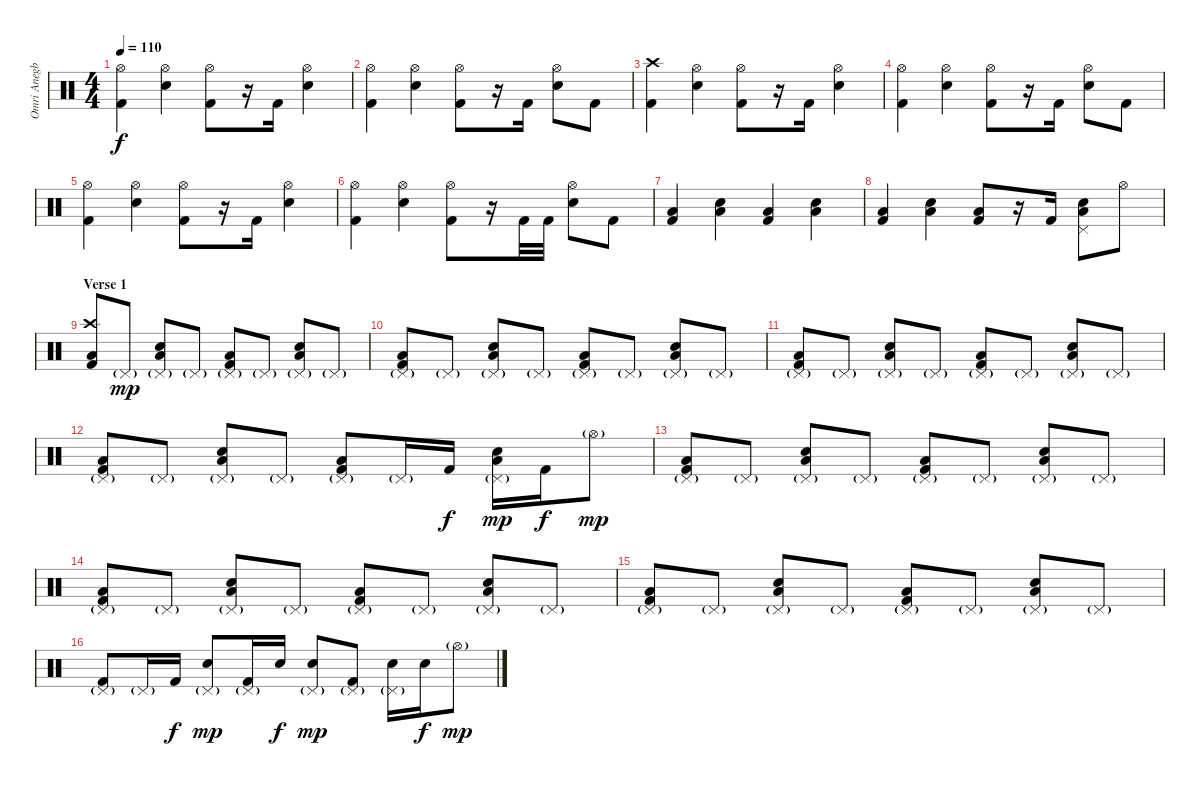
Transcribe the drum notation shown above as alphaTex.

\track ("Omri Anegbi" "Omri Anegb") {instrument percussion}
\staff {score}
\articulation defaults
\ts (4 4)
\tempo 110
\clef neutral
\ks c
("Hi-Hat (open)" "Kick (hit) 2").4{dy f} ("Hi-Hat (open)" "Snare (hit) 2").4 ("Hi-Hat (open)" "Kick (hit) 2").8 r.16 "Kick (hit) 2".16 ("Hi-Hat (open)" "Snare (hit) 2").4 |
("Hi-Hat (open)" "Kick (hit) 2").4 ("Hi-Hat (open)" "Snare (hit) 2").4 ("Hi-Hat (open)" "Kick (hit) 2").8 r.16 "Kick (hit) 2".16 ("Hi-Hat (open)" "Snare (hit) 2").8 "Kick (hit) 2".8 |
("Crash high (hit)" "Kick (hit) 2").4 ("Hi-Hat (open)" "Snare (hit) 2").4 ("Hi-Hat (open)" "Kick (hit) 2").8 r.16 "Kick (hit) 2".16 ("Hi-Hat (open)" "Snare (hit) 2").4 |
("Hi-Hat (open)" "Kick (hit) 2").4 ("Hi-Hat (open)" "Snare (hit) 2").4 ("Hi-Hat (open)" "Kick (hit) 2").8 r.16 "Kick (hit) 2".16 ("Hi-Hat (open)" "Snare (hit) 2").8 "Kick (hit) 2".8 |
("Hi-Hat (open)" "Kick (hit) 2").4 ("Hi-Hat (open)" "Snare (hit) 2").4 ("Hi-Hat (open)" "Kick (hit) 2").8 r.16 "Kick (hit) 2".16 ("Hi-Hat (open)" "Snare (hit) 2").4 |
("Hi-Hat (open)" "Kick (hit) 2").4 ("Hi-Hat (open)" "Snare (hit) 2").4 ("Hi-Hat (open)" "Kick (hit) 2").8 r.16 "Kick (hit) 2".32 "Kick (hit) 2".32 ("Hi-Hat (open)" "Snare (hit) 2").8 "Kick (hit) 2".8 |
("Low Floor Tom (hit)" "Kick (hit) 2").4 ("Snare (hit) 2" "Low Floor Tom (hit)").4 ("Low Floor Tom (hit)" "Kick (hit) 2").4 ("Snare (hit) 2" "Low Floor Tom (hit)").4 |
("Low Floor Tom (hit)" "Kick (hit) 2").4 ("Snare (hit) 2" "Low Floor Tom (hit)").4 ("Low Floor Tom (hit)" "Kick (hit) 2").8 r.16 "Kick (hit) 2".16 ("Pedal Hi-Hat (hit)" "Snare (hit) 2" "Low Floor Tom (hit)").8 "Hi-Hat (open)".8 |
\section ("" "Verse 1")
("Crash high (hit)" "Low Floor Tom (hit)" "Kick (hit) 2").8 "Pedal Hi-Hat (hit)"{g}.8{dy mp} ("Pedal Hi-Hat (hit)"{g} "Snare (hit) 2" "Low Floor Tom (hit)").8 "Pedal Hi-Hat (hit)"{g}.8 ("Pedal Hi-Hat (hit)"{g} "Low Floor Tom (hit)" "Kick (hit) 2").8 "Pedal Hi-Hat (hit)"{g}.8 ("Pedal Hi-Hat (hit)"{g} "Snare (hit) 2" "Low Floor Tom (hit)").8 "Pedal Hi-Hat (hit)"{g}.8 |
("Pedal Hi-Hat (hit)"{g} "Low Floor Tom (hit)" "Kick (hit) 2").8 "Pedal Hi-Hat (hit)"{g}.8 ("Pedal Hi-Hat (hit)"{g} "Snare (hit) 2" "Low Floor Tom (hit)").8 "Pedal Hi-Hat (hit)"{g}.8 ("Pedal Hi-Hat (hit)"{g} "Low Floor Tom (hit)" "Kick (hit) 2").8 "Pedal Hi-Hat (hit)"{g}.8 ("Pedal Hi-Hat (hit)"{g} "Snare (hit) 2" "Low Floor Tom (hit)").8 "Pedal Hi-Hat (hit)"{g}.8 |
("Pedal Hi-Hat (hit)"{g} "Low Floor Tom (hit)" "Kick (hit) 2").8 "Pedal Hi-Hat (hit)"{g}.8 ("Pedal Hi-Hat (hit)"{g} "Snare (hit) 2" "Low Floor Tom (hit)").8 "Pedal Hi-Hat (hit)"{g}.8 ("Pedal Hi-Hat (hit)"{g} "Low Floor Tom (hit)" "Kick (hit) 2").8 "Pedal Hi-Hat (hit)"{g}.8 ("Pedal Hi-Hat (hit)"{g} "Snare (hit) 2" "Low Floor Tom (hit)").8 "Pedal Hi-Hat (hit)"{g}.8 |
("Pedal Hi-Hat (hit)"{g} "Low Floor Tom (hit)" "Kick (hit) 2").8 "Pedal Hi-Hat (hit)"{g}.8 ("Pedal Hi-Hat (hit)"{g} "Snare (hit) 2" "Low Floor Tom (hit)").8 "Pedal Hi-Hat (hit)"{g}.8 ("Pedal Hi-Hat (hit)"{g} "Low Floor Tom (hit)" "Kick (hit) 2").8 "Pedal Hi-Hat (hit)"{g}.16 "Kick (hit) 2".16{dy f} ("Pedal Hi-Hat (hit)"{g} "Snare (hit) 2" "Low Floor Tom (hit)").16{dy mp} "Kick (hit) 2".16{dy f} "Hi-Hat (open)"{g}.8{dy mp} |
("Pedal Hi-Hat (hit)"{g} "Low Floor Tom (hit)" "Kick (hit) 2").8 "Pedal Hi-Hat (hit)"{g}.8 ("Pedal Hi-Hat (hit)"{g} "Snare (hit) 2" "Low Floor Tom (hit)").8 "Pedal Hi-Hat (hit)"{g}.8 ("Pedal Hi-Hat (hit)"{g} "Low Floor Tom (hit)" "Kick (hit) 2").8 "Pedal Hi-Hat (hit)"{g}.8 ("Pedal Hi-Hat (hit)"{g} "Snare (hit) 2" "Low Floor Tom (hit)").8 "Pedal Hi-Hat (hit)"{g}.8 |
("Pedal Hi-Hat (hit)"{g} "Low Floor Tom (hit)" "Kick (hit) 2").8 "Pedal Hi-Hat (hit)"{g}.8 ("Pedal Hi-Hat (hit)"{g} "Snare (hit) 2" "Low Floor Tom (hit)").8 "Pedal Hi-Hat (hit)"{g}.8 ("Pedal Hi-Hat (hit)"{g} "Low Floor Tom (hit)" "Kick (hit) 2").8 "Pedal Hi-Hat (hit)"{g}.8 ("Pedal Hi-Hat (hit)"{g} "Snare (hit) 2" "Low Floor Tom (hit)").8 "Pedal Hi-Hat (hit)"{g}.8 |
("Pedal Hi-Hat (hit)"{g} "Low Floor Tom (hit)" "Kick (hit) 2").8 "Pedal Hi-Hat (hit)"{g}.8 ("Pedal Hi-Hat (hit)"{g} "Snare (hit) 2" "Low Floor Tom (hit)").8 "Pedal Hi-Hat (hit)"{g}.8 ("Pedal Hi-Hat (hit)"{g} "Low Floor Tom (hit)" "Kick (hit) 2").8 "Pedal Hi-Hat (hit)"{g}.8 ("Pedal Hi-Hat (hit)"{g} "Snare (hit) 2" "Low Floor Tom (hit)").8 "Pedal Hi-Hat (hit)"{g}.8 |
("Pedal Hi-Hat (hit)"{g} "Kick (hit) 2").8 "Pedal Hi-Hat (hit)"{g}.16 "Kick (hit) 2".16{dy f} ("Pedal Hi-Hat (hit)"{g} "Snare (hit) 2").8{dy mp} ("Pedal Hi-Hat (hit)"{g} "Kick (hit) 2").16 "Snare (hit) 2".16{dy f} ("Pedal Hi-Hat (hit)"{g} "Snare (hit) 2").8{dy mp} ("Pedal Hi-Hat (hit)"{g} "Kick (hit) 2").8 ("Pedal Hi-Hat (hit)"{g} "Snare (hit) 2").16 "Snare (hit) 2".16{dy f} "Hi-Hat (open)"{g}.8{dy mp}
